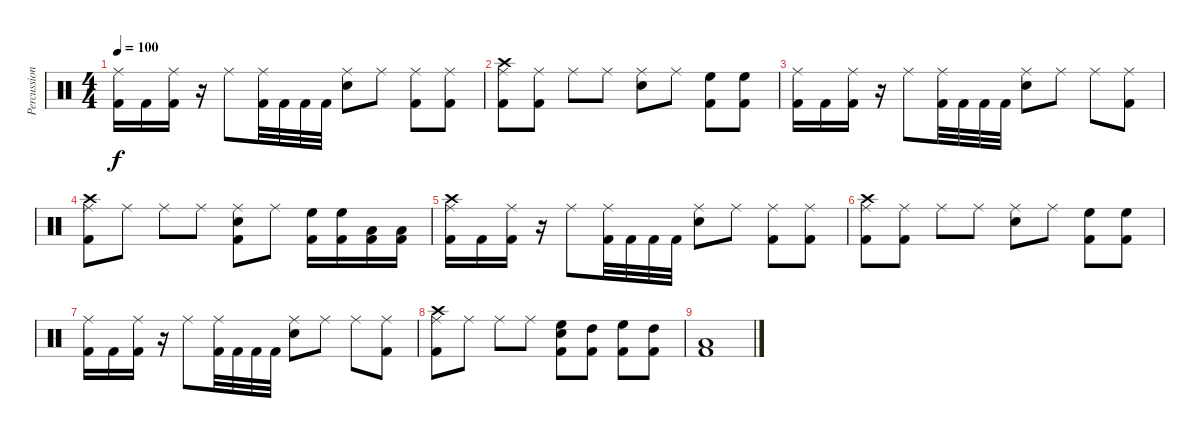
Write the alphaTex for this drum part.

\track ("Percussion" "Percussion") {instrument percussion}
\staff {score}
\articulation defaults
\ts (4 4)
\tempo 100
\clef neutral
\ks c
("Ride (middle)" "Kick (hit) 2").16{dy f} "Kick (hit) 2".16 ("Ride (middle)" "Kick (hit) 2").16 r.16 "Ride (middle)".8 ("Ride (middle)" "Kick (hit) 2").32 "Kick (hit) 2".32 "Kick (hit) 2".32 "Kick (hit) 2".32 ("Ride (middle)" "Electric Snare (hit)").8 "Ride (middle)".8 ("Ride (middle)" "Kick (hit) 2").8 ("Ride (middle)" "Kick (hit) 2").8 |
("Crash high (hit)" "Ride (middle)" "Kick (hit) 2").8 ("Ride (middle)" "Kick (hit) 2").8 "Ride (middle)".8 "Ride (middle)".8 ("Ride (middle)" "Electric Snare (hit)").8 "Ride (middle)".8 ("High Floor Tom (hit)" "Kick (hit) 2").8 ("High Floor Tom (hit)" "Kick (hit) 2").8 |
("Ride (middle)" "Kick (hit) 2").16 "Kick (hit) 2".16 ("Ride (middle)" "Kick (hit) 2").16 r.16 "Ride (middle)".8 ("Ride (middle)" "Kick (hit) 2").32 "Kick (hit) 2".32 "Kick (hit) 2".32 "Kick (hit) 2".32 ("Ride (middle)" "Electric Snare (hit)").8 "Ride (middle)".8 "Ride (middle)".8 ("Ride (middle)" "Kick (hit) 2").8 |
("Crash high (hit)" "Ride (middle)" "Kick (hit) 2").8 "Ride (middle)".8 "Ride (middle)".8 "Ride (middle)".8 ("Ride (middle)" "Electric Snare (hit)" "Kick (hit) 2").8 "Ride (middle)".8 ("High Floor Tom (hit)" "Kick (hit) 2").16 ("High Floor Tom (hit)" "Kick (hit) 2").16 ("Low Tom (hit)" "Kick (hit) 2").16 ("Low Tom (hit)" "Kick (hit) 2").16 |
("Crash high (hit)" "Ride (middle)" "Kick (hit) 2").16 "Kick (hit) 2".16 ("Ride (middle)" "Kick (hit) 2").16 r.16 "Ride (middle)".8 ("Ride (middle)" "Kick (hit) 2").32 "Kick (hit) 2".32 "Kick (hit) 2".32 "Kick (hit) 2".32 ("Ride (middle)" "Electric Snare (hit)").8 "Ride (middle)".8 ("Ride (middle)" "Kick (hit) 2").8 ("Ride (middle)" "Kick (hit) 2").8 |
("Crash high (hit)" "Ride (middle)" "Kick (hit) 2").8 ("Ride (middle)" "Kick (hit) 2").8 "Ride (middle)".8 "Ride (middle)".8 ("Ride (middle)" "Electric Snare (hit)").8 "Ride (middle)".8 ("High Floor Tom (hit)" "Kick (hit) 2").8 ("High Floor Tom (hit)" "Kick (hit) 2").8 |
("Ride (middle)" "Kick (hit) 2").16 "Kick (hit) 2".16 ("Ride (middle)" "Kick (hit) 2").16 r.16 "Ride (middle)".8 ("Ride (middle)" "Kick (hit) 2").32 "Kick (hit) 2".32 "Kick (hit) 2".32 "Kick (hit) 2".32 ("Ride (middle)" "Electric Snare (hit)").8 "Ride (middle)".8 "Ride (middle)".8 ("Ride (middle)" "Kick (hit) 2").8 |
("Crash high (hit)" "Ride (middle)" "Kick (hit) 2").8 "Ride (middle)".8 "Ride (middle)".8 "Ride (middle)".8 ("High Floor Tom (hit)" "Electric Snare (hit)" "Kick (hit) 2").8 ("High Tom (hit)" "Kick (hit) 2").8 ("High Floor Tom (hit)" "Kick (hit) 2").8 ("High Tom (hit)" "Kick (hit) 2").8 |
("Low Tom (hit)" "Kick (hit) 2").1
